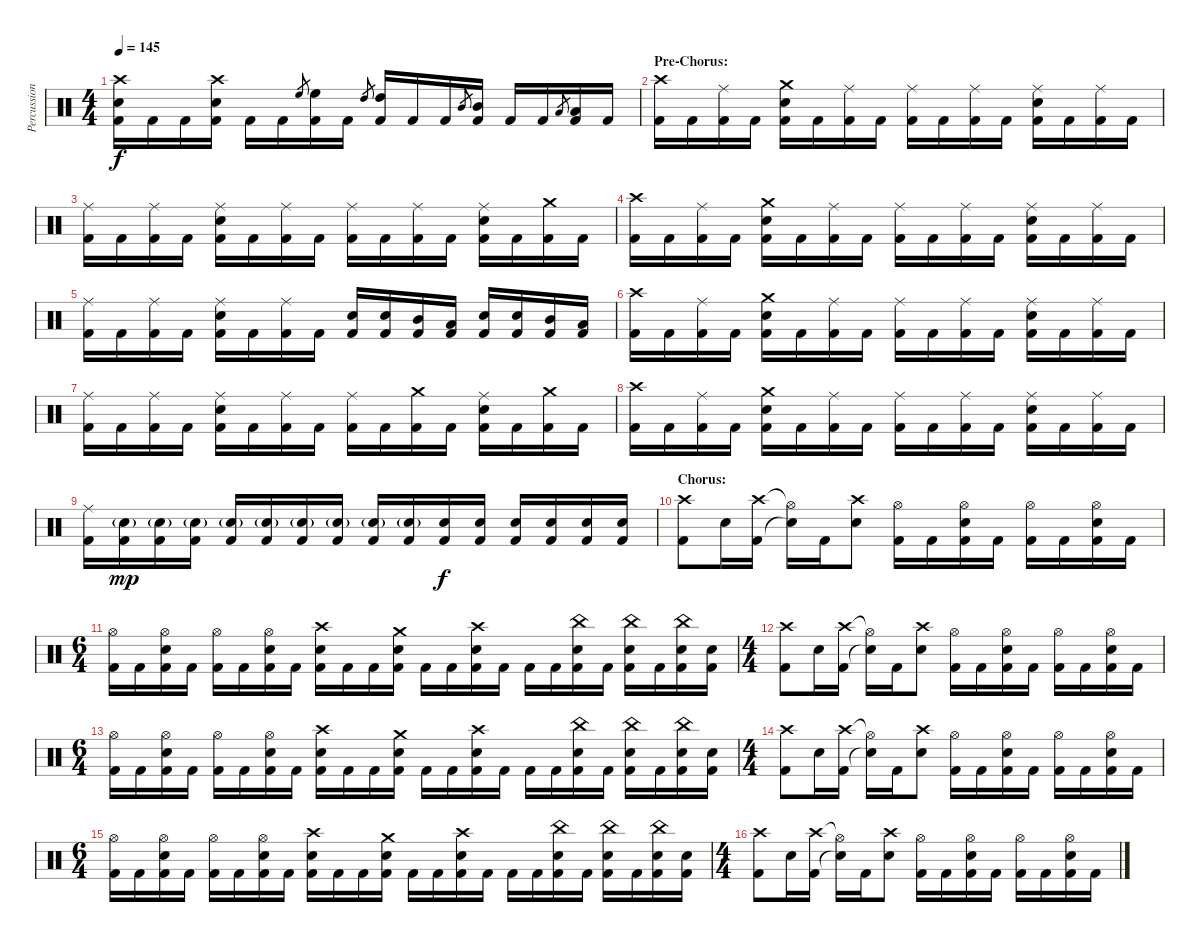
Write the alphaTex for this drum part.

\track ("Percussion" "Percussion") {instrument percussion}
\staff {score}
\articulation defaults
\ts (4 4)
\tempo 145
\clef neutral
\ks c
("Crash high (hit)" "Snare (hit) 2" "Kick (hit) 2").16{dy f} "Kick (hit) 2".16 "Kick (hit) 2".16 ("Crash high (hit)" "Snare (hit) 2" "Kick (hit) 2").16 "Kick (hit) 2".16 "Kick (hit) 2".16 "High Floor Tom (hit)".8{gr} ("High Floor Tom (hit)" "Kick (hit) 2").16 "Kick (hit) 2".16 "High Tom (hit)".8{gr} ("High Tom (hit)" "Kick (hit) 2").16 "Kick (hit) 2".16 "Kick (hit) 2".16 "Mid Tom (hit)".8{gr} ("Mid Tom (hit)" "Kick (hit) 2").16 "Kick (hit) 2".16 "Kick (hit) 2".16 "Low Tom (hit)".8{gr} ("Low Tom (hit)" "Kick (hit) 2").16 "Kick (hit) 2".16 |
\section ("" "Pre-Chorus:")
("Crash high (hit)" "Kick (hit) 2").16 "Kick (hit) 2".16 ("Ride (middle)" "Kick (hit) 2").16 "Kick (hit) 2".16 ("Crash medium (hit)" "Snare (hit) 2" "Kick (hit) 2").16 "Kick (hit) 2".16 ("Ride (middle)" "Kick (hit) 2").16 "Kick (hit) 2".16 ("Ride (middle)" "Kick (hit) 2").16 "Kick (hit) 2".16 ("Ride (middle)" "Kick (hit) 2").16 "Kick (hit) 2".16 ("Ride (middle)" "Snare (hit) 2" "Kick (hit) 2").16 "Kick (hit) 2".16 ("Ride (middle)" "Kick (hit) 2").16 "Kick (hit) 2".16 |
("Ride (middle)" "Kick (hit) 2").16 "Kick (hit) 2".16 ("Ride (middle)" "Kick (hit) 2").16 "Kick (hit) 2".16 ("Ride (middle)" "Snare (hit) 2" "Kick (hit) 2").16 "Kick (hit) 2".16 ("Ride (middle)" "Kick (hit) 2").16 "Kick (hit) 2".16 ("Ride (middle)" "Kick (hit) 2").16 "Kick (hit) 2".16 ("Ride (middle)" "Kick (hit) 2").16 "Kick (hit) 2".16 ("Ride (middle)" "Snare (hit) 2" "Kick (hit) 2").16 "Kick (hit) 2".16 ("Crash medium (hit)" "Kick (hit) 2").16 "Kick (hit) 2".16 |
("Crash high (hit)" "Kick (hit) 2").16 "Kick (hit) 2".16 ("Ride (middle)" "Kick (hit) 2").16 "Kick (hit) 2".16 ("Crash medium (hit)" "Snare (hit) 2" "Kick (hit) 2").16 "Kick (hit) 2".16 ("Ride (middle)" "Kick (hit) 2").16 "Kick (hit) 2".16 ("Ride (middle)" "Kick (hit) 2").16 "Kick (hit) 2".16 ("Ride (middle)" "Kick (hit) 2").16 "Kick (hit) 2".16 ("Ride (middle)" "Snare (hit) 2" "Kick (hit) 2").16 "Kick (hit) 2".16 ("Ride (middle)" "Kick (hit) 2").16 "Kick (hit) 2".16 |
("Ride (middle)" "Kick (hit) 2").16 "Kick (hit) 2".16 ("Ride (middle)" "Kick (hit) 2").16 "Kick (hit) 2".16 ("Ride (middle)" "Snare (hit) 2" "Kick (hit) 2").16 "Kick (hit) 2".16 ("Ride (middle)" "Kick (hit) 2").16 "Kick (hit) 2".16 ("Snare (hit) 2" "Kick (hit) 2").16 ("Snare (hit) 2" "Kick (hit) 2").16 ("Mid Tom (hit)" "Kick (hit) 2").16 ("Low Tom (hit)" "Kick (hit) 2").16 ("Snare (hit) 2" "Kick (hit) 2").16 ("Snare (hit) 2" "Kick (hit) 2").16 ("Mid Tom (hit)" "Kick (hit) 2").16 ("Low Tom (hit)" "Kick (hit) 2").16 |
("Crash high (hit)" "Kick (hit) 2").16 "Kick (hit) 2".16 ("Ride (middle)" "Kick (hit) 2").16 "Kick (hit) 2".16 ("Crash medium (hit)" "Snare (hit) 2" "Kick (hit) 2").16 "Kick (hit) 2".16 ("Ride (middle)" "Kick (hit) 2").16 "Kick (hit) 2".16 ("Ride (middle)" "Kick (hit) 2").16 "Kick (hit) 2".16 ("Ride (middle)" "Kick (hit) 2").16 "Kick (hit) 2".16 ("Ride (middle)" "Snare (hit) 2" "Kick (hit) 2").16 "Kick (hit) 2".16 ("Ride (middle)" "Kick (hit) 2").16 "Kick (hit) 2".16 |
("Ride (middle)" "Kick (hit) 2").16 "Kick (hit) 2".16 ("Ride (middle)" "Kick (hit) 2").16 "Kick (hit) 2".16 ("Ride (middle)" "Snare (hit) 2" "Kick (hit) 2").16 "Kick (hit) 2".16 ("Ride (middle)" "Kick (hit) 2").16 "Kick (hit) 2".16 ("Ride (middle)" "Kick (hit) 2").16 "Kick (hit) 2".16 ("Crash medium (hit)" "Kick (hit) 2").16 "Kick (hit) 2".16 ("Ride (middle)" "Snare (hit) 2" "Kick (hit) 2").16 "Kick (hit) 2".16 ("Crash medium (hit)" "Kick (hit) 2").16 "Kick (hit) 2".16 |
("Crash high (hit)" "Kick (hit) 2").16 "Kick (hit) 2".16 ("Ride (middle)" "Kick (hit) 2").16 "Kick (hit) 2".16 ("Crash medium (hit)" "Snare (hit) 2" "Kick (hit) 2").16 "Kick (hit) 2".16 ("Ride (middle)" "Kick (hit) 2").16 "Kick (hit) 2".16 ("Ride (middle)" "Kick (hit) 2").16 "Kick (hit) 2".16 ("Ride (middle)" "Kick (hit) 2").16 "Kick (hit) 2".16 ("Ride (middle)" "Snare (hit) 2" "Kick (hit) 2").16 "Kick (hit) 2".16 ("Ride (middle)" "Kick (hit) 2").16 "Kick (hit) 2".16 |
("Ride (middle)" "Kick (hit) 2").16 ("Snare (hit) 2"{g} "Kick (hit) 2").16{dy mp} ("Snare (hit) 2"{g} "Kick (hit) 2").16 ("Snare (hit) 2"{g} "Kick (hit) 2").16 ("Snare (hit) 2"{g} "Kick (hit) 2").16 ("Snare (hit) 2"{g} "Kick (hit) 2").16 ("Snare (hit) 2"{g} "Kick (hit) 2").16 ("Snare (hit) 2"{g} "Kick (hit) 2").16 ("Snare (hit) 2"{g} "Kick (hit) 2").16 ("Snare (hit) 2"{g} "Kick (hit) 2").16 ("Snare (hit) 2" "Kick (hit) 2").16{dy f} ("Snare (hit) 2" "Kick (hit) 2").16 ("Snare (hit) 2" "Kick (hit) 2").16 ("Snare (hit) 2" "Kick (hit) 2").16 ("Snare (hit) 2" "Kick (hit) 2").16 ("Snare (hit) 2" "Kick (hit) 2").16 |
\section ("" "Chorus:")
("Crash high (hit)" "Kick (hit) 2").8 "Snare (hit) 2".16 ("Crash high (hit)" "Kick (hit) 2").16 ("Hi-Hat (open)"{t} "Snare (hit)"{t}).16 "Kick (hit) 2".16 ("Crash high (hit)" "Snare (hit) 2").8 ("Hi-Hat (open)" "Kick (hit) 2").16 "Kick (hit) 2".16 ("Hi-Hat (open)" "Snare (hit) 2" "Kick (hit) 2").16 "Kick (hit) 2".16 ("Hi-Hat (open)" "Kick (hit) 2").16 "Kick (hit) 2".16 ("Hi-Hat (open)" "Snare (hit) 2" "Kick (hit) 2").16 "Kick (hit) 2".16 |
\ts (6 4)
("Hi-Hat (open)" "Kick (hit) 2").16 "Kick (hit) 2".16 ("Hi-Hat (open)" "Snare (hit) 2" "Kick (hit) 2").16 "Kick (hit) 2".16 ("Hi-Hat (open)" "Kick (hit) 2").16 "Kick (hit) 2".16 ("Hi-Hat (open)" "Snare (hit) 2" "Kick (hit) 2").16 "Kick (hit) 2".16 ("Crash high (hit)" "Snare (hit) 2" "Kick (hit) 2").16 "Kick (hit) 2".16 "Kick (hit) 2".16 ("Crash medium (hit)" "Snare (hit) 2" "Kick (hit) 2").16 "Kick (hit) 2".16 "Kick (hit) 2".16 ("Crash high (hit)" "Snare (hit) 2" "Kick (hit) 2").16 "Kick (hit) 2".16 "Kick (hit) 2".16 "Kick (hit) 2".16 ("China (hit)" "Snare (hit) 2" "Kick (hit) 2").16 "Kick (hit) 2".16 ("China (hit)" "Snare (hit) 2" "Kick (hit) 2").16 "Kick (hit) 2".16 ("China (hit)" "Snare (hit) 2" "Kick (hit) 2").16 ("Snare (hit) 2" "Kick (hit) 2").16 |
\ts (4 4)
("Crash high (hit)" "Kick (hit) 2").8 "Snare (hit) 2".16 ("Crash high (hit)" "Kick (hit) 2").16 ("Hi-Hat (open)"{t} "Snare (hit)"{t}).16 "Kick (hit) 2".16 ("Crash high (hit)" "Snare (hit) 2").8 ("Hi-Hat (open)" "Kick (hit) 2").16 "Kick (hit) 2".16 ("Hi-Hat (open)" "Snare (hit) 2" "Kick (hit) 2").16 "Kick (hit) 2".16 ("Hi-Hat (open)" "Kick (hit) 2").16 "Kick (hit) 2".16 ("Hi-Hat (open)" "Snare (hit) 2" "Kick (hit) 2").16 "Kick (hit) 2".16 |
\ts (6 4)
("Hi-Hat (open)" "Kick (hit) 2").16 "Kick (hit) 2".16 ("Hi-Hat (open)" "Snare (hit) 2" "Kick (hit) 2").16 "Kick (hit) 2".16 ("Hi-Hat (open)" "Kick (hit) 2").16 "Kick (hit) 2".16 ("Hi-Hat (open)" "Snare (hit) 2" "Kick (hit) 2").16 "Kick (hit) 2".16 ("Crash high (hit)" "Snare (hit) 2" "Kick (hit) 2").16 "Kick (hit) 2".16 "Kick (hit) 2".16 ("Crash medium (hit)" "Snare (hit) 2" "Kick (hit) 2").16 "Kick (hit) 2".16 "Kick (hit) 2".16 ("Crash high (hit)" "Snare (hit) 2" "Kick (hit) 2").16 "Kick (hit) 2".16 "Kick (hit) 2".16 "Kick (hit) 2".16 ("China (hit)" "Snare (hit) 2" "Kick (hit) 2").16 "Kick (hit) 2".16 ("China (hit)" "Snare (hit) 2" "Kick (hit) 2").16 "Kick (hit) 2".16 ("China (hit)" "Snare (hit) 2" "Kick (hit) 2").16 ("Snare (hit) 2" "Kick (hit) 2").16 |
\ts (4 4)
("Crash high (hit)" "Kick (hit) 2").8 "Snare (hit) 2".16 ("Crash high (hit)" "Kick (hit) 2").16 ("Hi-Hat (open)"{t} "Snare (hit)"{t}).16 "Kick (hit) 2".16 ("Crash high (hit)" "Snare (hit) 2").8 ("Hi-Hat (open)" "Kick (hit) 2").16 "Kick (hit) 2".16 ("Hi-Hat (open)" "Snare (hit) 2" "Kick (hit) 2").16 "Kick (hit) 2".16 ("Hi-Hat (open)" "Kick (hit) 2").16 "Kick (hit) 2".16 ("Hi-Hat (open)" "Snare (hit) 2" "Kick (hit) 2").16 "Kick (hit) 2".16 |
\ts (6 4)
("Hi-Hat (open)" "Kick (hit) 2").16 "Kick (hit) 2".16 ("Hi-Hat (open)" "Snare (hit) 2" "Kick (hit) 2").16 "Kick (hit) 2".16 ("Hi-Hat (open)" "Kick (hit) 2").16 "Kick (hit) 2".16 ("Hi-Hat (open)" "Snare (hit) 2" "Kick (hit) 2").16 "Kick (hit) 2".16 ("Crash high (hit)" "Snare (hit) 2" "Kick (hit) 2").16 "Kick (hit) 2".16 "Kick (hit) 2".16 ("Crash medium (hit)" "Snare (hit) 2" "Kick (hit) 2").16 "Kick (hit) 2".16 "Kick (hit) 2".16 ("Crash high (hit)" "Snare (hit) 2" "Kick (hit) 2").16 "Kick (hit) 2".16 "Kick (hit) 2".16 "Kick (hit) 2".16 ("China (hit)" "Snare (hit) 2" "Kick (hit) 2").16 "Kick (hit) 2".16 ("China (hit)" "Snare (hit) 2" "Kick (hit) 2").16 "Kick (hit) 2".16 ("China (hit)" "Snare (hit) 2" "Kick (hit) 2").16 ("Snare (hit) 2" "Kick (hit) 2").16 |
\ts (4 4)
("Crash high (hit)" "Kick (hit) 2").8 "Snare (hit) 2".16 ("Crash high (hit)" "Kick (hit) 2").16 ("Hi-Hat (open)"{t} "Snare (hit)"{t}).16 "Kick (hit) 2".16 ("Crash high (hit)" "Snare (hit) 2").8 ("Hi-Hat (open)" "Kick (hit) 2").16 "Kick (hit) 2".16 ("Hi-Hat (open)" "Snare (hit) 2" "Kick (hit) 2").16 "Kick (hit) 2".16 ("Hi-Hat (open)" "Kick (hit) 2").16 "Kick (hit) 2".16 ("Hi-Hat (open)" "Snare (hit) 2" "Kick (hit) 2").16 "Kick (hit) 2".16
